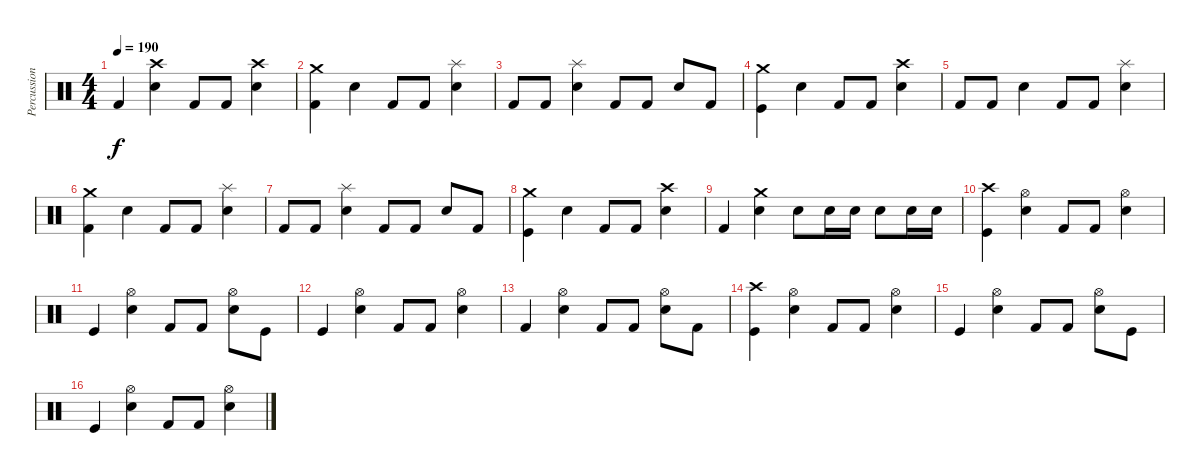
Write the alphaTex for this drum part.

\track ("Percussions" "Percussion") {instrument percussion}
\staff {score}
\articulation defaults
\ts (4 4)
\tempo 190
\clef neutral
\ks c "Kick (hit) 2".4{dy f}
("Crash high (hit)" "Snare (hit) 2").4 "Kick (hit) 2".8 "Kick (hit) 2".8 ("Crash high (hit)" "Snare (hit) 2").4 |
("Crash medium (hit)" "Kick (hit) 2").4 "Snare (hit) 2".4 "Kick (hit) 2".8 "Kick (hit) 2".8 ("Splash (hit)" "Snare (hit) 2").4 |
"Kick (hit) 2".8 "Kick (hit) 2".8 ("Splash (hit)" "Snare (hit) 2").4 "Kick (hit) 2".8 "Kick (hit) 2".8 "Snare (hit) 2".8 "Kick (hit) 2".8 |
("Crash medium (hit)" "Kick (hit)").4 "Snare (hit) 2".4 "Kick (hit) 2".8 "Kick (hit) 2".8 ("Crash high (hit)" "Snare (hit) 2").4 |
"Kick (hit) 2".8 "Kick (hit) 2".8 "Snare (hit) 2".4 "Kick (hit) 2".8 "Kick (hit) 2".8 ("Splash (hit)" "Snare (hit) 2").4 |
("Crash medium (hit)" "Kick (hit) 2").4 "Snare (hit) 2".4 "Kick (hit) 2".8 "Kick (hit) 2".8 ("Splash (hit)" "Snare (hit) 2").4 |
"Kick (hit) 2".8 "Kick (hit) 2".8 ("Splash (hit)" "Snare (hit) 2").4 "Kick (hit) 2".8 "Kick (hit) 2".8 "Snare (hit) 2".8 "Kick (hit) 2".8 |
("Crash medium (hit)" "Kick (hit)").4 "Snare (hit) 2".4 "Kick (hit) 2".8 "Kick (hit) 2".8 ("Crash high (hit)" "Snare (hit) 2").4 |
"Kick (hit) 2".4 ("Crash medium (hit)" "Snare (hit) 2").4 "Electric Snare (hit)".8 "Electric Snare (hit)".16 "Electric Snare (hit)".16 "Electric Snare (hit)".8 "Electric Snare (hit)".16 "Electric Snare (hit)".16 |
("Crash high (hit)" "Kick (hit)").4 ("Hi-Hat (open)" "Snare (hit) 2").4 "Kick (hit) 2".8 "Kick (hit) 2".8 ("Hi-Hat (open)" "Snare (hit) 2").4 |
"Kick (hit)".4 ("Hi-Hat (open)" "Snare (hit) 2").4 "Kick (hit) 2".8 "Kick (hit) 2".8 ("Hi-Hat (open)" "Snare (hit) 2").8 "Kick (hit)".8 |
"Kick (hit)".4 ("Hi-Hat (open)" "Snare (hit) 2").4 "Kick (hit) 2".8 "Kick (hit) 2".8 ("Hi-Hat (open)" "Snare (hit) 2").4 |
"Kick (hit) 2".4 ("Hi-Hat (open)" "Snare (hit) 2").4 "Kick (hit) 2".8 "Kick (hit) 2".8 ("Hi-Hat (open)" "Snare (hit) 2").8 "Kick (hit) 2".8 |
("Crash high (hit)" "Kick (hit)").4 ("Hi-Hat (open)" "Snare (hit) 2").4 "Kick (hit) 2".8 "Kick (hit) 2".8 ("Hi-Hat (open)" "Snare (hit) 2").4 |
"Kick (hit)".4 ("Hi-Hat (open)" "Snare (hit) 2").4 "Kick (hit) 2".8 "Kick (hit) 2".8 ("Hi-Hat (open)" "Snare (hit) 2").8 "Kick (hit)".8 |
"Kick (hit)".4 ("Hi-Hat (open)" "Snare (hit) 2").4 "Kick (hit) 2".8 "Kick (hit) 2".8 ("Hi-Hat (open)" "Snare (hit) 2").4
